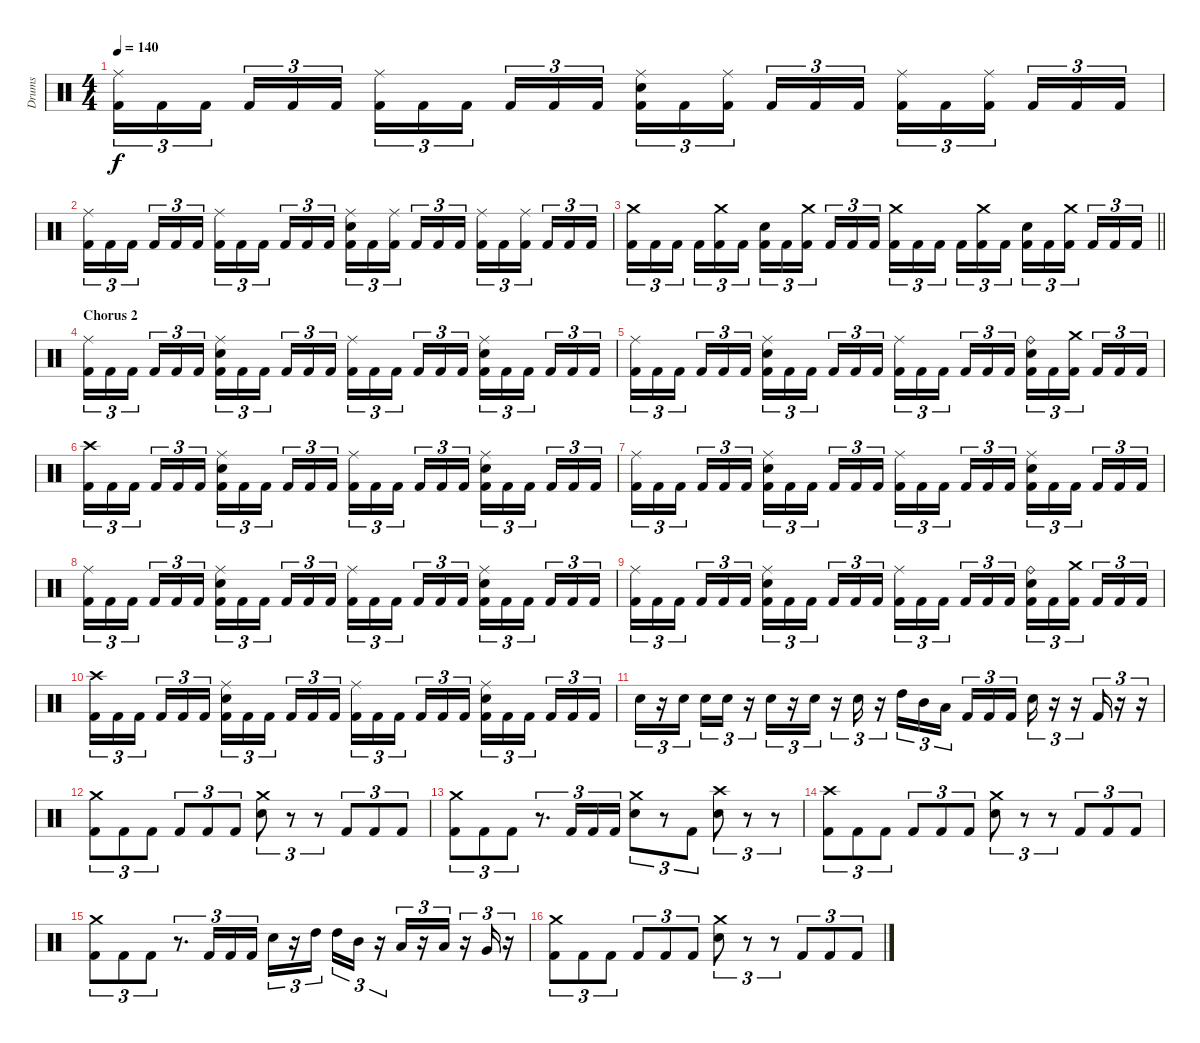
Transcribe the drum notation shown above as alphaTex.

\track ("Drums" "Drums") {instrument percussion}
\staff {score}
\articulation defaults
\ts (4 4)
\tempo 140
\clef neutral
\ks c
("Ride (middle)" "Kick (hit) 2").16{tu (3 2) dy f} "Kick (hit) 2".16{tu (3 2)} "Kick (hit) 2".16{tu (3 2) beam splitsecondary} "Kick (hit) 2".16{tu (3 2)} "Kick (hit) 2".16{tu (3 2)} "Kick (hit) 2".16{tu (3 2)} ("Ride (middle)" "Kick (hit) 2").16{tu (3 2)} "Kick (hit) 2".16{tu (3 2)} "Kick (hit) 2".16{tu (3 2) beam splitsecondary} "Kick (hit) 2".16{tu (3 2)} "Kick (hit) 2".16{tu (3 2)} "Kick (hit) 2".16{tu (3 2)} ("Ride (middle)" "Electric Snare (hit)" "Kick (hit) 2").16{tu (3 2)} "Kick (hit) 2".16{tu (3 2)} ("Ride (middle)" "Kick (hit) 2").16{tu (3 2) beam splitsecondary} "Kick (hit) 2".16{tu (3 2)} "Kick (hit) 2".16{tu (3 2)} "Kick (hit) 2".16{tu (3 2)} ("Ride (middle)" "Kick (hit) 2").16{tu (3 2)} "Kick (hit) 2".16{tu (3 2)} ("Ride (middle)" "Kick (hit) 2").16{tu (3 2) beam splitsecondary} "Kick (hit) 2".16{tu (3 2)} "Kick (hit) 2".16{tu (3 2)} "Kick (hit) 2".16{tu (3 2)} |
("Ride (middle)" "Kick (hit) 2").16{tu (3 2)} "Kick (hit) 2".16{tu (3 2)} "Kick (hit) 2".16{tu (3 2) beam splitsecondary} "Kick (hit) 2".16{tu (3 2)} "Kick (hit) 2".16{tu (3 2)} "Kick (hit) 2".16{tu (3 2)} ("Ride (middle)" "Kick (hit) 2").16{tu (3 2)} "Kick (hit) 2".16{tu (3 2)} "Kick (hit) 2".16{tu (3 2) beam splitsecondary} "Kick (hit) 2".16{tu (3 2)} "Kick (hit) 2".16{tu (3 2)} "Kick (hit) 2".16{tu (3 2)} ("Ride (middle)" "Electric Snare (hit)" "Kick (hit) 2").16{tu (3 2)} "Kick (hit) 2".16{tu (3 2)} ("Ride (middle)" "Kick (hit) 2").16{tu (3 2) beam splitsecondary} "Kick (hit) 2".16{tu (3 2)} "Kick (hit) 2".16{tu (3 2)} "Kick (hit) 2".16{tu (3 2)} ("Ride (middle)" "Kick (hit) 2").16{tu (3 2)} "Kick (hit) 2".16{tu (3 2)} ("Ride (middle)" "Kick (hit) 2").16{tu (3 2) beam splitsecondary} "Kick (hit) 2".16{tu (3 2)} "Kick (hit) 2".16{tu (3 2)} "Kick (hit) 2".16{tu (3 2)} |
\barLineRight lightlight
("Crash medium (hit)" "Kick (hit) 2").16{tu (3 2)} "Kick (hit) 2".16{tu (3 2)} "Kick (hit) 2".16{tu (3 2) beam splitsecondary} "Kick (hit) 2".16{tu (3 2)} ("Crash medium (hit)" "Kick (hit) 2").16{tu (3 2)} "Kick (hit) 2".16{tu (3 2)} ("Electric Snare (hit)" "Kick (hit) 2").16{tu (3 2)} "Kick (hit) 2".16{tu (3 2)} ("Crash medium (hit)" "Kick (hit) 2").16{tu (3 2) beam splitsecondary} "Kick (hit) 2".16{tu (3 2)} "Kick (hit) 2".16{tu (3 2)} "Kick (hit) 2".16{tu (3 2)} ("Crash medium (hit)" "Kick (hit) 2").16{tu (3 2)} "Kick (hit) 2".16{tu (3 2)} "Kick (hit) 2".16{tu (3 2) beam splitsecondary} "Kick (hit) 2".16{tu (3 2)} ("Crash medium (hit)" "Kick (hit) 2").16{tu (3 2)} "Kick (hit) 2".16{tu (3 2)} ("Electric Snare (hit)" "Kick (hit) 2").16{tu (3 2)} "Kick (hit) 2".16{tu (3 2)} ("Crash medium (hit)" "Kick (hit) 2").16{tu (3 2) beam splitsecondary} "Kick (hit) 2".16{tu (3 2)} "Kick (hit) 2".16{tu (3 2)} "Kick (hit) 2".16{tu (3 2)} |
\section ("" "Chorus 2")
("Ride (middle)" "Kick (hit) 2").16{tu (3 2)} "Kick (hit) 2".16{tu (3 2)} "Kick (hit) 2".16{tu (3 2) beam splitsecondary} "Kick (hit) 2".16{tu (3 2)} "Kick (hit) 2".16{tu (3 2)} "Kick (hit) 2".16{tu (3 2)} ("Ride (middle)" "Electric Snare (hit)" "Kick (hit) 2").16{tu (3 2)} "Kick (hit) 2".16{tu (3 2)} "Kick (hit) 2".16{tu (3 2) beam splitsecondary} "Kick (hit) 2".16{tu (3 2)} "Kick (hit) 2".16{tu (3 2)} "Kick (hit) 2".16{tu (3 2)} ("Ride (middle)" "Kick (hit) 2").16{tu (3 2)} "Kick (hit) 2".16{tu (3 2)} "Kick (hit) 2".16{tu (3 2) beam splitsecondary} "Kick (hit) 2".16{tu (3 2)} "Kick (hit) 2".16{tu (3 2)} "Kick (hit) 2".16{tu (3 2)} ("Ride (middle)" "Electric Snare (hit)" "Kick (hit) 2").16{tu (3 2)} "Kick (hit) 2".16{tu (3 2)} "Kick (hit) 2".16{tu (3 2) beam splitsecondary} "Kick (hit) 2".16{tu (3 2)} "Kick (hit) 2".16{tu (3 2)} "Kick (hit) 2".16{tu (3 2)} |
("Ride (middle)" "Kick (hit) 2").16{tu (3 2)} "Kick (hit) 2".16{tu (3 2)} "Kick (hit) 2".16{tu (3 2) beam splitsecondary} "Kick (hit) 2".16{tu (3 2)} "Kick (hit) 2".16{tu (3 2)} "Kick (hit) 2".16{tu (3 2)} ("Ride (middle)" "Electric Snare (hit)" "Kick (hit) 2").16{tu (3 2)} "Kick (hit) 2".16{tu (3 2)} "Kick (hit) 2".16{tu (3 2) beam splitsecondary} "Kick (hit) 2".16{tu (3 2)} "Kick (hit) 2".16{tu (3 2)} "Kick (hit) 2".16{tu (3 2)} ("Ride (middle)" "Kick (hit) 2").16{tu (3 2)} "Kick (hit) 2".16{tu (3 2)} "Kick (hit) 2".16{tu (3 2) beam splitsecondary} "Kick (hit) 2".16{tu (3 2)} "Kick (hit) 2".16{tu (3 2)} "Kick (hit) 2".16{tu (3 2)} ("Ride (bell)" "Electric Snare (hit)" "Kick (hit) 2").16{tu (3 2)} "Kick (hit) 2".16{tu (3 2)} ("Crash medium (hit)" "Kick (hit) 2").16{tu (3 2) beam splitsecondary} "Kick (hit) 2".16{tu (3 2)} "Kick (hit) 2".16{tu (3 2)} "Kick (hit) 2".16{tu (3 2)} |
("Crash high (hit)" "Kick (hit) 2").16{tu (3 2)} "Kick (hit) 2".16{tu (3 2)} "Kick (hit) 2".16{tu (3 2) beam splitsecondary} "Kick (hit) 2".16{tu (3 2)} "Kick (hit) 2".16{tu (3 2)} "Kick (hit) 2".16{tu (3 2)} ("Ride (middle)" "Electric Snare (hit)" "Kick (hit) 2").16{tu (3 2)} "Kick (hit) 2".16{tu (3 2)} "Kick (hit) 2".16{tu (3 2) beam splitsecondary} "Kick (hit) 2".16{tu (3 2)} "Kick (hit) 2".16{tu (3 2)} "Kick (hit) 2".16{tu (3 2)} ("Ride (middle)" "Kick (hit) 2").16{tu (3 2)} "Kick (hit) 2".16{tu (3 2)} "Kick (hit) 2".16{tu (3 2) beam splitsecondary} "Kick (hit) 2".16{tu (3 2)} "Kick (hit) 2".16{tu (3 2)} "Kick (hit) 2".16{tu (3 2)} ("Ride (middle)" "Electric Snare (hit)" "Kick (hit) 2").16{tu (3 2)} "Kick (hit) 2".16{tu (3 2)} "Kick (hit) 2".16{tu (3 2) beam splitsecondary} "Kick (hit) 2".16{tu (3 2)} "Kick (hit) 2".16{tu (3 2)} "Kick (hit) 2".16{tu (3 2)} |
("Ride (middle)" "Kick (hit) 2").16{tu (3 2)} "Kick (hit) 2".16{tu (3 2)} "Kick (hit) 2".16{tu (3 2) beam splitsecondary} "Kick (hit) 2".16{tu (3 2)} "Kick (hit) 2".16{tu (3 2)} "Kick (hit) 2".16{tu (3 2)} ("Ride (middle)" "Electric Snare (hit)" "Kick (hit) 2").16{tu (3 2)} "Kick (hit) 2".16{tu (3 2)} "Kick (hit) 2".16{tu (3 2) beam splitsecondary} "Kick (hit) 2".16{tu (3 2)} "Kick (hit) 2".16{tu (3 2)} "Kick (hit) 2".16{tu (3 2)} ("Ride (middle)" "Kick (hit) 2").16{tu (3 2)} "Kick (hit) 2".16{tu (3 2)} "Kick (hit) 2".16{tu (3 2) beam splitsecondary} "Kick (hit) 2".16{tu (3 2)} "Kick (hit) 2".16{tu (3 2)} "Kick (hit) 2".16{tu (3 2)} ("Ride (middle)" "Electric Snare (hit)" "Kick (hit) 2").16{tu (3 2)} "Kick (hit) 2".16{tu (3 2)} "Kick (hit) 2".16{tu (3 2) beam splitsecondary} "Kick (hit) 2".16{tu (3 2)} "Kick (hit) 2".16{tu (3 2)} "Kick (hit) 2".16{tu (3 2)} |
("Ride (middle)" "Kick (hit) 2").16{tu (3 2)} "Kick (hit) 2".16{tu (3 2)} "Kick (hit) 2".16{tu (3 2) beam splitsecondary} "Kick (hit) 2".16{tu (3 2)} "Kick (hit) 2".16{tu (3 2)} "Kick (hit) 2".16{tu (3 2)} ("Ride (middle)" "Electric Snare (hit)" "Kick (hit) 2").16{tu (3 2)} "Kick (hit) 2".16{tu (3 2)} "Kick (hit) 2".16{tu (3 2) beam splitsecondary} "Kick (hit) 2".16{tu (3 2)} "Kick (hit) 2".16{tu (3 2)} "Kick (hit) 2".16{tu (3 2)} ("Ride (middle)" "Kick (hit) 2").16{tu (3 2)} "Kick (hit) 2".16{tu (3 2)} "Kick (hit) 2".16{tu (3 2) beam splitsecondary} "Kick (hit) 2".16{tu (3 2)} "Kick (hit) 2".16{tu (3 2)} "Kick (hit) 2".16{tu (3 2)} ("Ride (middle)" "Electric Snare (hit)" "Kick (hit) 2").16{tu (3 2)} "Kick (hit) 2".16{tu (3 2)} "Kick (hit) 2".16{tu (3 2) beam splitsecondary} "Kick (hit) 2".16{tu (3 2)} "Kick (hit) 2".16{tu (3 2)} "Kick (hit) 2".16{tu (3 2)} |
("Ride (middle)" "Kick (hit) 2").16{tu (3 2)} "Kick (hit) 2".16{tu (3 2)} "Kick (hit) 2".16{tu (3 2) beam splitsecondary} "Kick (hit) 2".16{tu (3 2)} "Kick (hit) 2".16{tu (3 2)} "Kick (hit) 2".16{tu (3 2)} ("Ride (middle)" "Electric Snare (hit)" "Kick (hit) 2").16{tu (3 2)} "Kick (hit) 2".16{tu (3 2)} "Kick (hit) 2".16{tu (3 2) beam splitsecondary} "Kick (hit) 2".16{tu (3 2)} "Kick (hit) 2".16{tu (3 2)} "Kick (hit) 2".16{tu (3 2)} ("Ride (middle)" "Kick (hit) 2").16{tu (3 2)} "Kick (hit) 2".16{tu (3 2)} "Kick (hit) 2".16{tu (3 2) beam splitsecondary} "Kick (hit) 2".16{tu (3 2)} "Kick (hit) 2".16{tu (3 2)} "Kick (hit) 2".16{tu (3 2)} ("Ride (bell)" "Electric Snare (hit)" "Kick (hit) 2").16{tu (3 2)} "Kick (hit) 2".16{tu (3 2)} ("Crash medium (hit)" "Kick (hit) 2").16{tu (3 2) beam splitsecondary} "Kick (hit) 2".16{tu (3 2)} "Kick (hit) 2".16{tu (3 2)} "Kick (hit) 2".16{tu (3 2)} |
("Crash high (hit)" "Kick (hit) 2").16{tu (3 2)} "Kick (hit) 2".16{tu (3 2)} "Kick (hit) 2".16{tu (3 2) beam splitsecondary} "Kick (hit) 2".16{tu (3 2)} "Kick (hit) 2".16{tu (3 2)} "Kick (hit) 2".16{tu (3 2)} ("Ride (middle)" "Electric Snare (hit)" "Kick (hit) 2").16{tu (3 2)} "Kick (hit) 2".16{tu (3 2)} "Kick (hit) 2".16{tu (3 2) beam splitsecondary} "Kick (hit) 2".16{tu (3 2)} "Kick (hit) 2".16{tu (3 2)} "Kick (hit) 2".16{tu (3 2)} ("Ride (middle)" "Kick (hit) 2").16{tu (3 2)} "Kick (hit) 2".16{tu (3 2)} "Kick (hit) 2".16{tu (3 2) beam splitsecondary} "Kick (hit) 2".16{tu (3 2)} "Kick (hit) 2".16{tu (3 2)} "Kick (hit) 2".16{tu (3 2)} ("Ride (middle)" "Electric Snare (hit)" "Kick (hit) 2").16{tu (3 2)} "Kick (hit) 2".16{tu (3 2)} "Kick (hit) 2".16{tu (3 2) beam splitsecondary} "Kick (hit) 2".16{tu (3 2)} "Kick (hit) 2".16{tu (3 2)} "Kick (hit) 2".16{tu (3 2)} |
"Electric Snare (hit)".16{tu (3 2)} r.16{tu (3 2)} "Electric Snare (hit)".16{tu (3 2) beam splitsecondary} "Electric Snare (hit)".16{tu (3 2)} "Electric Snare (hit)".16{tu (3 2)} r.16{tu (3 2)} "Electric Snare (hit)".16{tu (3 2)} r.16{tu (3 2)} "Electric Snare (hit)".16{tu (3 2)} r.16{tu (3 2)} "Electric Snare (hit)".16{tu (3 2)} r.16{tu (3 2)} "High Tom (hit)".16{tu (3 2)} "Mid Tom (hit)".16{tu (3 2)} "Low Tom (hit)".16{tu (3 2) beam splitsecondary} "Kick (hit) 2".16{tu (3 2)} "Kick (hit) 2".16{tu (3 2)} "Kick (hit) 2".16{tu (3 2)} "Electric Snare (hit)".16{tu (3 2)} r.16{tu (3 2)} r.16{tu (3 2)} "Kick (hit) 2".16{tu (3 2)} r.16{tu (3 2)} r.16{tu (3 2)} |
("Crash medium (hit)" "Kick (hit) 2").8{tu (3 2)} "Kick (hit) 2".8{tu (3 2)} "Kick (hit) 2".8{tu (3 2)} "Kick (hit) 2".8{tu (3 2)} "Kick (hit) 2".8{tu (3 2)} "Kick (hit) 2".8{tu (3 2)} ("Crash medium (hit)" "Electric Snare (hit)").8{tu (3 2)} r.8{tu (3 2)} r.8{tu (3 2)} "Kick (hit) 2".8{tu (3 2)} "Kick (hit) 2".8{tu (3 2)} "Kick (hit) 2".8{tu (3 2)} |
("Crash medium (hit)" "Kick (hit) 2").8{tu (3 2)} "Kick (hit) 2".8{tu (3 2)} "Kick (hit) 2".8{tu (3 2)} r.8{d tu (3 2)} "Kick (hit) 2".16{tu (3 2)} "Kick (hit) 2".16{tu (3 2)} "Kick (hit) 2".16{tu (3 2)} ("Crash medium (hit)" "Electric Snare (hit)").8{tu (3 2)} r.8{tu (3 2)} "Kick (hit) 2".8{tu (3 2)} ("Crash high (hit)" "Electric Snare (hit)").8{tu (3 2)} r.8{tu (3 2)} r.8{tu (3 2)} |
("Crash high (hit)" "Kick (hit) 2").8{tu (3 2)} "Kick (hit) 2".8{tu (3 2)} "Kick (hit) 2".8{tu (3 2)} "Kick (hit) 2".8{tu (3 2)} "Kick (hit) 2".8{tu (3 2)} "Kick (hit) 2".8{tu (3 2)} ("Crash medium (hit)" "Electric Snare (hit)").8{tu (3 2)} r.8{tu (3 2)} r.8{tu (3 2)} "Kick (hit) 2".8{tu (3 2)} "Kick (hit) 2".8{tu (3 2)} "Kick (hit) 2".8{tu (3 2)} |
("Crash medium (hit)" "Kick (hit) 2").8{tu (3 2)} "Kick (hit) 2".8{tu (3 2)} "Kick (hit) 2".8{tu (3 2)} r.8{d tu (3 2)} "Kick (hit) 2".16{tu (3 2)} "Kick (hit) 2".16{tu (3 2)} "Kick (hit) 2".16{tu (3 2)} "Electric Snare (hit)".16{tu (3 2)} r.16{tu (3 2)} "High Tom (hit)".16{tu (3 2) beam splitsecondary} "High Tom (hit)".16{tu (3 2)} "Mid Tom (hit)".16{tu (3 2)} r.16{tu (3 2)} "Low Tom (hit)".16{tu (3 2)} r.16{tu (3 2)} "Low Tom (hit)".16{tu (3 2)} r.16{tu (3 2)} "Very Low Tom (hit)".16{tu (3 2)} r.16{tu (3 2)} |
("Crash medium (hit)" "Kick (hit) 2").8{tu (3 2)} "Kick (hit) 2".8{tu (3 2)} "Kick (hit) 2".8{tu (3 2)} "Kick (hit) 2".8{tu (3 2)} "Kick (hit) 2".8{tu (3 2)} "Kick (hit) 2".8{tu (3 2)} ("Crash medium (hit)" "Electric Snare (hit)").8{tu (3 2)} r.8{tu (3 2)} r.8{tu (3 2)} "Kick (hit) 2".8{tu (3 2)} "Kick (hit) 2".8{tu (3 2)} "Kick (hit) 2".8{tu (3 2)}
